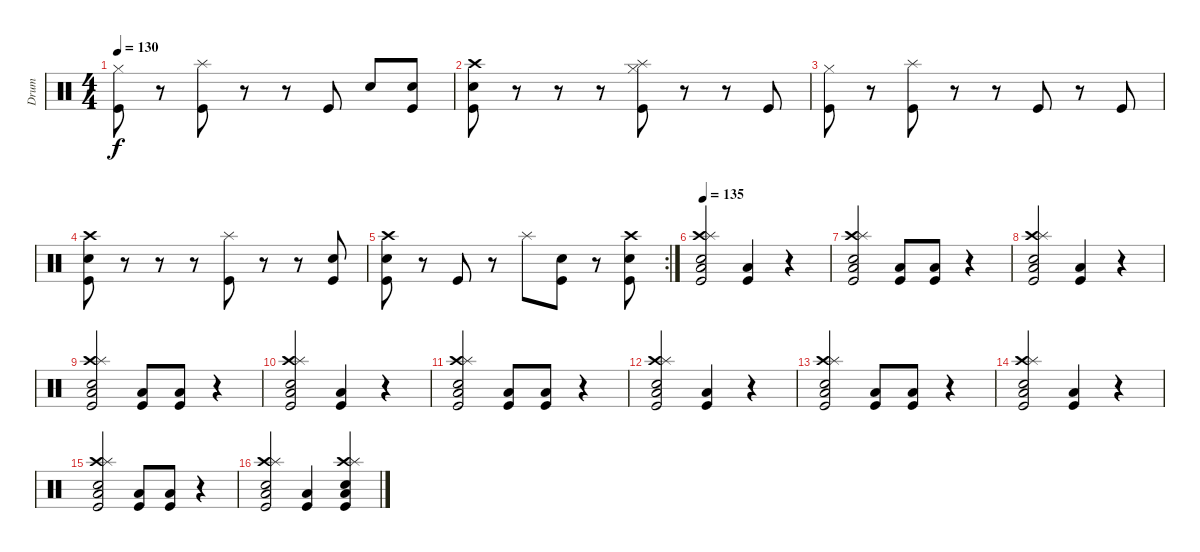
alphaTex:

\track ("Drum" "Drum") {instrument percussion}
\staff {score}
\articulation defaults
\ts (4 4)
\tempo 130
\clef neutral
\ks c
("Hi-Hat (closed)" "Kick (hit)").8{dy f} r.8 ("Splash (hit)" "Kick (hit)").8 r.8 r.8 "Kick (hit)".8 "Snare (hit) 2".8 ("Snare (hit) 2" "Kick (hit)").8 |
("Crash high (hit)" "Snare (hit) 2" "Kick (hit)").8 r.8 r.8 r.8 ("Splash (hit)" "Hi-Hat (closed)" "Kick (hit)").8 r.8 r.8 "Kick (hit)".8 |
("Hi-Hat (closed)" "Kick (hit)").8 r.8 ("Splash (hit)" "Kick (hit)").8 r.8 r.8 "Kick (hit)".8 r.8 "Kick (hit)".8 |
("Crash high (hit)" "Snare (hit) 2" "Kick (hit)").8 r.8 r.8 r.8 ("Splash (hit)" "Kick (hit)").8 r.8 r.8 ("Snare (hit) 2" "Kick (hit)").8 |
\rc 2
("Crash high (hit)" "Snare (hit) 2" "Kick (hit)").8 r.8 "Kick (hit)".8 r.8 "Splash (hit)".8 ("Snare (hit) 2" "Kick (hit)").8 r.8 ("Crash high (hit)" "Snare (hit) 2" "Kick (hit)").8 |
\tempo 135
("Crash high (hit)" "Splash (hit)" "Snare (hit) 2" "Low Tom (hit)" "Kick (hit)").2 ("Low Tom (hit)" "Kick (hit)").4 r.4 |
("Crash high (hit)" "Splash (hit)" "Snare (hit) 2" "Low Tom (hit)" "Kick (hit)").2 ("Low Tom (hit)" "Kick (hit)").8 ("Low Tom (hit)" "Kick (hit)").8 r.4 |
("Crash high (hit)" "Splash (hit)" "Snare (hit) 2" "Low Tom (hit)" "Kick (hit)").2 ("Low Tom (hit)" "Kick (hit)").4 r.4 |
("Crash high (hit)" "Splash (hit)" "Snare (hit) 2" "Low Tom (hit)" "Kick (hit)").2 ("Low Tom (hit)" "Kick (hit)").8 ("Low Tom (hit)" "Kick (hit)").8 r.4 |
("Crash high (hit)" "Splash (hit)" "Snare (hit) 2" "Low Tom (hit)" "Kick (hit)").2 ("Low Tom (hit)" "Kick (hit)").4 r.4 |
("Crash high (hit)" "Splash (hit)" "Snare (hit) 2" "Low Tom (hit)" "Kick (hit)").2 ("Low Tom (hit)" "Kick (hit)").8 ("Low Tom (hit)" "Kick (hit)").8 r.4 |
("Crash high (hit)" "Splash (hit)" "Snare (hit) 2" "Low Tom (hit)" "Kick (hit)").2 ("Low Tom (hit)" "Kick (hit)").4 r.4 |
("Crash high (hit)" "Splash (hit)" "Snare (hit) 2" "Low Tom (hit)" "Kick (hit)").2 ("Low Tom (hit)" "Kick (hit)").8 ("Low Tom (hit)" "Kick (hit)").8 r.4 |
("Crash high (hit)" "Splash (hit)" "Snare (hit) 2" "Low Tom (hit)" "Kick (hit)").2 ("Low Tom (hit)" "Kick (hit)").4 r.4 |
("Crash high (hit)" "Splash (hit)" "Snare (hit) 2" "Low Tom (hit)" "Kick (hit)").2 ("Low Tom (hit)" "Kick (hit)").8 ("Low Tom (hit)" "Kick (hit)").8 r.4 |
("Crash high (hit)" "Splash (hit)" "Snare (hit) 2" "Low Tom (hit)" "Kick (hit)").2 ("Low Tom (hit)" "Kick (hit)").4 ("Crash high (hit)" "Splash (hit)" "Snare (hit) 2" "Low Tom (hit)" "Kick (hit)").4
